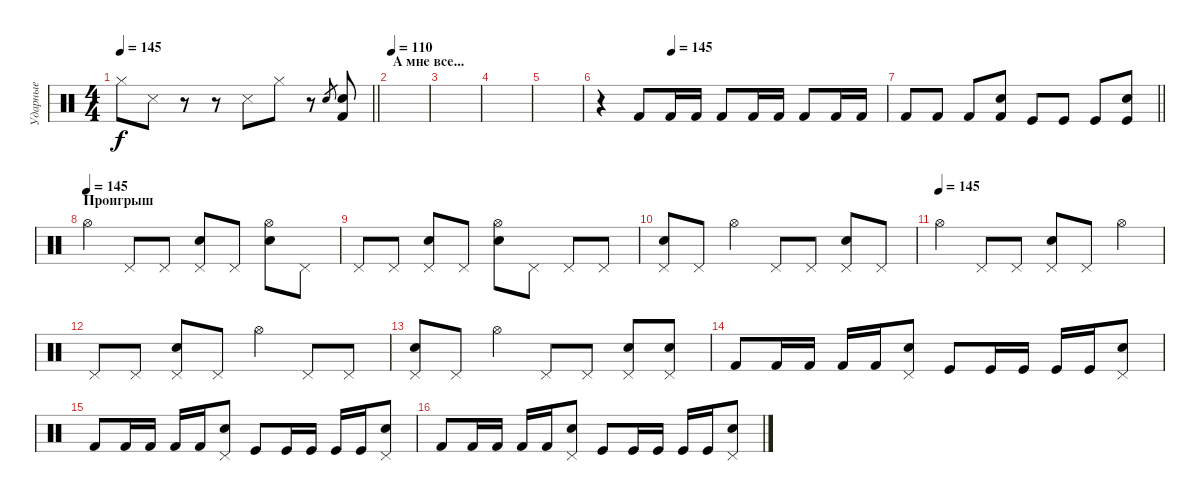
\track ("Ударные" "Ударные") {instrument percussion}
\staff {score}
\articulation defaults
\ts (4 4)
\tempo 145
\clef neutral
\barLineRight lightlight
\ks c "Hi-Hat (closed)".8{dy f} "Snare (side stick) 3".8
r.8 r.8 "Snare (side stick) 3".8 "Hi-Hat (closed)".8 r.8 "Snare (hit) 2".8{gr} ("Electric Snare (hit)" "Kick (hit) 2").8 |
\section ("" "А мне все...")
\tempo 110
|
|
|
|
\tempo (145 0.25)
r.4 "Kick (hit) 2".8 "Kick (hit) 2".16 "Kick (hit) 2".16 "Kick (hit) 2".8 "Kick (hit) 2".16 "Kick (hit) 2".16 "Kick (hit) 2".8 "Kick (hit) 2".16 "Kick (hit) 2".16 |
\barLineRight lightlight "Kick (hit) 2".8 "Kick (hit) 2".8 "Kick (hit) 2".8
("Electric Snare (hit)" "Kick (hit) 2").8 "Kick (hit)".8 "Kick (hit)".8 "Kick (hit)".8 ("Electric Snare (hit)" "Kick (hit)").8 |
\section ("" "Проигрыш")
\tempo (145)
"Hi-Hat (open)".4 "Pedal Hi-Hat (hit)".8 "Pedal Hi-Hat (hit)".8 ("Pedal Hi-Hat (hit)" "Electric Snare (hit)").8 "Pedal Hi-Hat (hit)".8 ("Hi-Hat (open)" "Electric Snare (hit)").8 "Pedal Hi-Hat (hit)".8 |
"Pedal Hi-Hat (hit)".8 "Pedal Hi-Hat (hit)".8 ("Pedal Hi-Hat (hit)" "Electric Snare (hit)").8 "Pedal Hi-Hat (hit)".8 ("Hi-Hat (open)" "Electric Snare (hit)").8 "Pedal Hi-Hat (hit)".8 "Pedal Hi-Hat (hit)".8 "Pedal Hi-Hat (hit)".8 |
("Pedal Hi-Hat (hit)" "Electric Snare (hit)").8 "Pedal Hi-Hat (hit)".8 "Hi-Hat (open)".4 "Pedal Hi-Hat (hit)".8 "Pedal Hi-Hat (hit)".8 ("Pedal Hi-Hat (hit)" "Electric Snare (hit)").8 "Pedal Hi-Hat (hit)".8 |
\tempo (145)
"Hi-Hat (open)".4 "Pedal Hi-Hat (hit)".8 "Pedal Hi-Hat (hit)".8 ("Pedal Hi-Hat (hit)" "Electric Snare (hit)").8 "Pedal Hi-Hat (hit)".8 "Hi-Hat (open)".4 |
"Pedal Hi-Hat (hit)".8 "Pedal Hi-Hat (hit)".8 ("Pedal Hi-Hat (hit)" "Electric Snare (hit)").8 "Pedal Hi-Hat (hit)".8 "Hi-Hat (open)".4 "Pedal Hi-Hat (hit)".8 "Pedal Hi-Hat (hit)".8 |
("Pedal Hi-Hat (hit)" "Electric Snare (hit)").8 "Pedal Hi-Hat (hit)".8 "Hi-Hat (open)".4 "Pedal Hi-Hat (hit)".8 "Pedal Hi-Hat (hit)".8 ("Pedal Hi-Hat (hit)" "Snare (hit) 2").8 ("Pedal Hi-Hat (hit)" "Electric Snare (hit)").8 |
"Kick (hit) 2".8 "Kick (hit) 2".16 "Kick (hit) 2".16 "Kick (hit) 2".16 "Kick (hit) 2".16 ("Pedal Hi-Hat (hit)" "Electric Snare (hit)").8 "Kick (hit)".8 "Kick (hit)".16 "Kick (hit)".16 "Kick (hit)".16 "Kick (hit)".16 ("Pedal Hi-Hat (hit)" "Electric Snare (hit)").8 |
"Kick (hit) 2".8 "Kick (hit) 2".16 "Kick (hit) 2".16 "Kick (hit) 2".16 "Kick (hit) 2".16 ("Pedal Hi-Hat (hit)" "Electric Snare (hit)").8 "Kick (hit)".8 "Kick (hit)".16 "Kick (hit)".16 "Kick (hit)".16 "Kick (hit)".16 ("Pedal Hi-Hat (hit)" "Electric Snare (hit)").8 |
"Kick (hit) 2".8 "Kick (hit) 2".16 "Kick (hit) 2".16 "Kick (hit) 2".16 "Kick (hit) 2".16 ("Pedal Hi-Hat (hit)" "Electric Snare (hit)").8 "Kick (hit)".8 "Kick (hit)".16 "Kick (hit)".16 "Kick (hit)".16 "Kick (hit)".16 ("Pedal Hi-Hat (hit)" "Electric Snare (hit)").8
